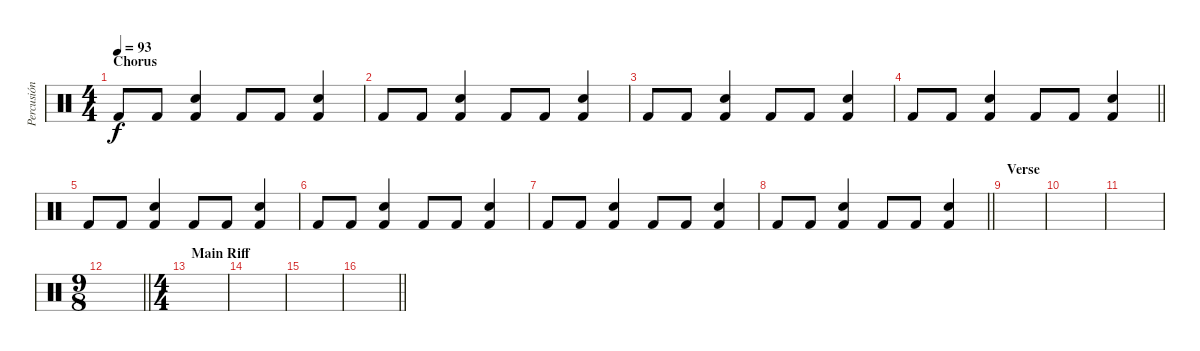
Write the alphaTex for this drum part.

\track ("Percusión" "Percusión") {instrument percussion}
\staff {score}
\articulation defaults
\ts (4 4)
\section ("" "Chorus")
\tempo 93
\clef neutral
\ks c "Kick (hit) 2".8{dy f} "Kick (hit) 2".8
("Electric Snare (hit)" "Kick (hit) 2").4 "Kick (hit) 2".8 "Kick (hit) 2".8 ("Electric Snare (hit)" "Kick (hit) 2").4 |
"Kick (hit) 2".8 "Kick (hit) 2".8 ("Electric Snare (hit)" "Kick (hit) 2").4 "Kick (hit) 2".8 "Kick (hit) 2".8 ("Electric Snare (hit)" "Kick (hit) 2").4 |
"Kick (hit) 2".8 "Kick (hit) 2".8 ("Electric Snare (hit)" "Kick (hit) 2").4 "Kick (hit) 2".8 "Kick (hit) 2".8 ("Electric Snare (hit)" "Kick (hit) 2").4 |
\barLineRight lightlight "Kick (hit) 2".8 "Kick (hit) 2".8
("Electric Snare (hit)" "Kick (hit) 2").4 "Kick (hit) 2".8 "Kick (hit) 2".8 ("Electric Snare (hit)" "Kick (hit) 2").4 |
"Kick (hit) 2".8 "Kick (hit) 2".8 ("Electric Snare (hit)" "Kick (hit) 2").4 "Kick (hit) 2".8 "Kick (hit) 2".8 ("Electric Snare (hit)" "Kick (hit) 2").4 |
"Kick (hit) 2".8 "Kick (hit) 2".8 ("Electric Snare (hit)" "Kick (hit) 2").4 "Kick (hit) 2".8 "Kick (hit) 2".8 ("Electric Snare (hit)" "Kick (hit) 2").4 |
"Kick (hit) 2".8 "Kick (hit) 2".8 ("Electric Snare (hit)" "Kick (hit) 2").4 "Kick (hit) 2".8 "Kick (hit) 2".8 ("Electric Snare (hit)" "Kick (hit) 2").4 |
\barLineRight lightlight "Kick (hit) 2".8 "Kick (hit) 2".8
("Electric Snare (hit)" "Kick (hit) 2").4 "Kick (hit) 2".8 "Kick (hit) 2".8 ("Electric Snare (hit)" "Kick (hit) 2").4 |
\section ("" "Verse")
|
|
|
\ts (9 8)
\barLineRight lightlight
|
\ts (4 4)
\section ("" "Main Riff")
|
|
|
\barLineRight lightlight
